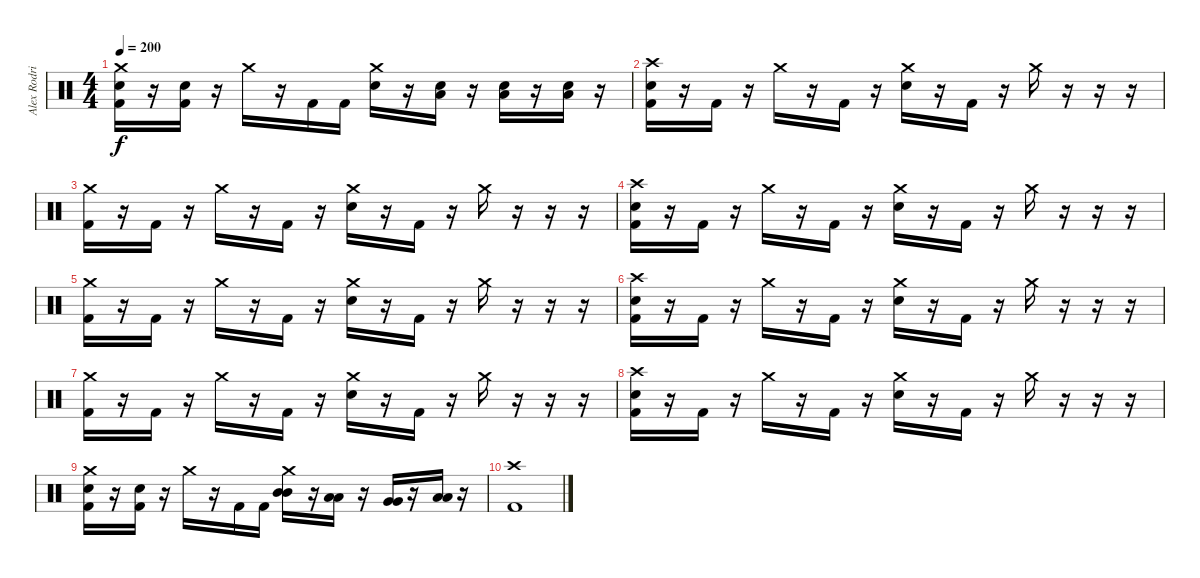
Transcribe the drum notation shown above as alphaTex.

\track ("Alex Rodriguez" "Alex Rodri") {instrument percussion}
\staff {score}
\articulation defaults
\ts (4 4)
\tempo 200
\clef neutral
\ks c
("Crash medium (hit)" "Electric Snare (hit)" "Kick (hit) 2").16{dy f} r.16 ("Electric Snare (hit)" "Kick (hit) 2").16 r.16 "Crash medium (hit)".16 r.16 "Kick (hit) 2".16 "Kick (hit) 2".16 ("Crash medium (hit)" "Electric Snare (hit)").16 r.16 ("Electric Snare (hit)" "Low Floor Tom (hit)").16 r.16 ("Electric Snare (hit)" "Low Floor Tom (hit)").16 r.16 ("Electric Snare (hit)" "Low Floor Tom (hit)").16 r.16 |
("Crash high (hit)" "Electric Snare (hit)" "Kick (hit) 2").16 r.16 "Kick (hit) 2".16 r.16 "Crash medium (hit)".16 r.16 "Kick (hit) 2".16 r.16 ("Crash medium (hit)" "Electric Snare (hit)").16 r.16 "Kick (hit) 2".16 r.16 "Crash medium (hit)".16 r.16 r.16 r.16 |
("Crash medium (hit)" "Kick (hit) 2").16 r.16 "Kick (hit) 2".16 r.16 "Crash medium (hit)".16 r.16 "Kick (hit) 2".16 r.16 ("Crash medium (hit)" "Electric Snare (hit)").16 r.16 "Kick (hit) 2".16 r.16 "Crash medium (hit)".16 r.16 r.16 r.16 |
("Crash high (hit)" "Electric Snare (hit)" "Kick (hit) 2").16 r.16 "Kick (hit) 2".16 r.16 "Crash medium (hit)".16 r.16 "Kick (hit) 2".16 r.16 ("Crash medium (hit)" "Electric Snare (hit)").16 r.16 "Kick (hit) 2".16 r.16 "Crash medium (hit)".16 r.16 r.16 r.16 |
("Crash medium (hit)" "Kick (hit) 2").16 r.16 "Kick (hit) 2".16 r.16 "Crash medium (hit)".16 r.16 "Kick (hit) 2".16 r.16 ("Crash medium (hit)" "Electric Snare (hit)").16 r.16 "Kick (hit) 2".16 r.16 "Crash medium (hit)".16 r.16 r.16 r.16 |
("Crash high (hit)" "Electric Snare (hit)" "Kick (hit) 2").16 r.16 "Kick (hit) 2".16 r.16 "Crash medium (hit)".16 r.16 "Kick (hit) 2".16 r.16 ("Crash medium (hit)" "Electric Snare (hit)").16 r.16 "Kick (hit) 2".16 r.16 "Crash medium (hit)".16 r.16 r.16 r.16 |
("Crash medium (hit)" "Kick (hit) 2").16 r.16 "Kick (hit) 2".16 r.16 "Crash medium (hit)".16 r.16 "Kick (hit) 2".16 r.16 ("Crash medium (hit)" "Electric Snare (hit)").16 r.16 "Kick (hit) 2".16 r.16 "Crash medium (hit)".16 r.16 r.16 r.16 |
("Crash high (hit)" "Electric Snare (hit)" "Kick (hit) 2").16 r.16 "Kick (hit) 2".16 r.16 "Crash medium (hit)".16 r.16 "Kick (hit) 2".16 r.16 ("Crash medium (hit)" "Electric Snare (hit)").16 r.16 "Kick (hit) 2".16 r.16 "Crash medium (hit)".16 r.16 r.16 r.16 |
("Crash medium (hit)" "Electric Snare (hit)" "Kick (hit) 2").16 r.16 ("Electric Snare (hit)" "Kick (hit) 2").16 r.16 "Crash medium (hit)".16 r.16 "Kick (hit) 2".16 "Kick (hit) 2".16 ("Crash medium (hit)" "Mid Tom (hit)" "Mid Tom (hit)").16 r.16 ("Low Tom (hit)" "Low Tom (hit)").16 r.16 ("Very Low Tom (hit)" "Very Low Tom (hit)").16 r.16 ("Low Floor Tom (hit)" "Low Floor Tom (hit)").16 r.16 |
("Crash high (hit)" "Kick (hit) 2").1
